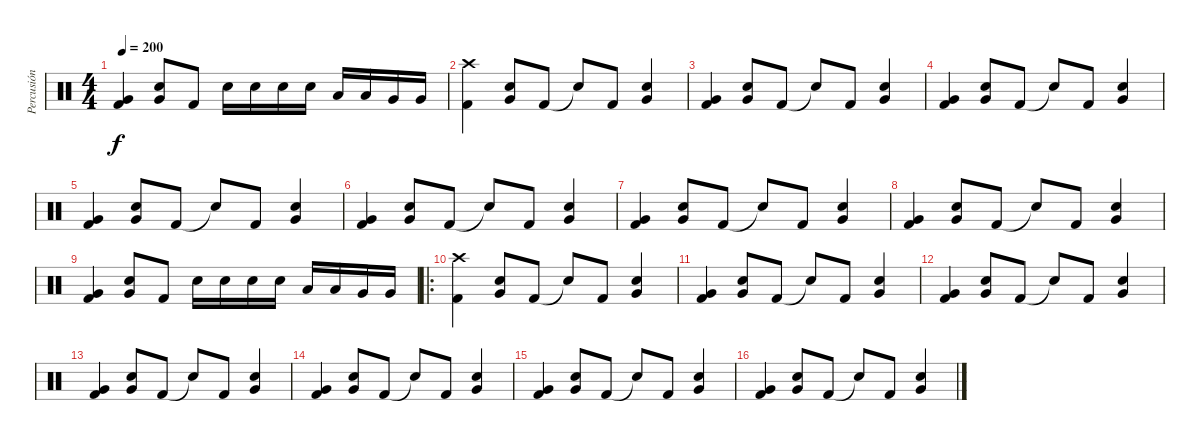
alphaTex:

\track ("Percusión" "Percusión") {instrument percussion}
\staff {score}
\articulation defaults
\ts (4 4)
\tempo 200
\clef neutral
\ks c
("Very Low Tom (hit)" "Kick (hit) 2").4{dy f} ("Very Low Tom (hit)" "Snare (hit) 2").8 "Kick (hit) 2".8 "Snare (hit) 2".16 "Snare (hit) 2".16 "Snare (hit) 2".16 "Snare (hit) 2".16 "Low Tom (hit)".16 "Low Tom (hit)".16 "Very Low Tom (hit)".16 "Very Low Tom (hit)".16 |
("Crash high (hit)" "Kick (hit) 2").4 ("Very Low Tom (hit)" "Snare (hit) 2").8 "Kick (hit) 2".8 "Snare (hit)"{t}.8 "Kick (hit) 2".8 ("Very Low Tom (hit)" "Snare (hit) 2").4 |
("Very Low Tom (hit)" "Kick (hit) 2").4 ("Very Low Tom (hit)" "Snare (hit) 2").8 "Kick (hit) 2".8 "Snare (hit)"{t}.8 "Kick (hit) 2".8 ("Very Low Tom (hit)" "Snare (hit) 2").4 |
("Very Low Tom (hit)" "Kick (hit) 2").4 ("Very Low Tom (hit)" "Snare (hit) 2").8 "Kick (hit) 2".8 "Snare (hit)"{t}.8 "Kick (hit) 2".8 ("Very Low Tom (hit)" "Snare (hit) 2").4 |
("Very Low Tom (hit)" "Kick (hit) 2").4 ("Very Low Tom (hit)" "Snare (hit) 2").8 "Kick (hit) 2".8 "Snare (hit)"{t}.8 "Kick (hit) 2".8 ("Very Low Tom (hit)" "Snare (hit) 2").4 |
("Very Low Tom (hit)" "Kick (hit) 2").4 ("Very Low Tom (hit)" "Snare (hit) 2").8 "Kick (hit) 2".8 "Snare (hit)"{t}.8 "Kick (hit) 2".8 ("Very Low Tom (hit)" "Snare (hit) 2").4 |
("Very Low Tom (hit)" "Kick (hit) 2").4 ("Very Low Tom (hit)" "Snare (hit) 2").8 "Kick (hit) 2".8 "Snare (hit)"{t}.8 "Kick (hit) 2".8 ("Very Low Tom (hit)" "Snare (hit) 2").4 |
("Very Low Tom (hit)" "Kick (hit) 2").4 ("Very Low Tom (hit)" "Snare (hit) 2").8 "Kick (hit) 2".8 "Snare (hit)"{t}.8 "Kick (hit) 2".8 ("Very Low Tom (hit)" "Snare (hit) 2").4 |
("Very Low Tom (hit)" "Kick (hit) 2").4 ("Very Low Tom (hit)" "Snare (hit) 2").8 "Kick (hit) 2".8 "Snare (hit) 2".16 "Snare (hit) 2".16 "Snare (hit) 2".16 "Snare (hit) 2".16 "Low Tom (hit)".16 "Low Tom (hit)".16 "Very Low Tom (hit)".16 "Very Low Tom (hit)".16 |
\ro
("Crash high (hit)" "Kick (hit) 2").4 ("Very Low Tom (hit)" "Snare (hit) 2").8 "Kick (hit) 2".8 "Snare (hit)"{t}.8 "Kick (hit) 2".8 ("Very Low Tom (hit)" "Snare (hit) 2").4 |
("Very Low Tom (hit)" "Kick (hit) 2").4 ("Very Low Tom (hit)" "Snare (hit) 2").8 "Kick (hit) 2".8 "Snare (hit)"{t}.8 "Kick (hit) 2".8 ("Very Low Tom (hit)" "Snare (hit) 2").4 |
("Very Low Tom (hit)" "Kick (hit) 2").4 ("Very Low Tom (hit)" "Snare (hit) 2").8 "Kick (hit) 2".8 "Snare (hit)"{t}.8 "Kick (hit) 2".8 ("Very Low Tom (hit)" "Snare (hit) 2").4 |
("Very Low Tom (hit)" "Kick (hit) 2").4 ("Very Low Tom (hit)" "Snare (hit) 2").8 "Kick (hit) 2".8 "Snare (hit)"{t}.8 "Kick (hit) 2".8 ("Very Low Tom (hit)" "Snare (hit) 2").4 |
("Very Low Tom (hit)" "Kick (hit) 2").4 ("Very Low Tom (hit)" "Snare (hit) 2").8 "Kick (hit) 2".8 "Snare (hit)"{t}.8 "Kick (hit) 2".8 ("Very Low Tom (hit)" "Snare (hit) 2").4 |
("Very Low Tom (hit)" "Kick (hit) 2").4 ("Very Low Tom (hit)" "Snare (hit) 2").8 "Kick (hit) 2".8 "Snare (hit)"{t}.8 "Kick (hit) 2".8 ("Very Low Tom (hit)" "Snare (hit) 2").4 |
("Very Low Tom (hit)" "Kick (hit) 2").4 ("Very Low Tom (hit)" "Snare (hit) 2").8 "Kick (hit) 2".8 "Snare (hit)"{t}.8 "Kick (hit) 2".8 ("Very Low Tom (hit)" "Snare (hit) 2").4
